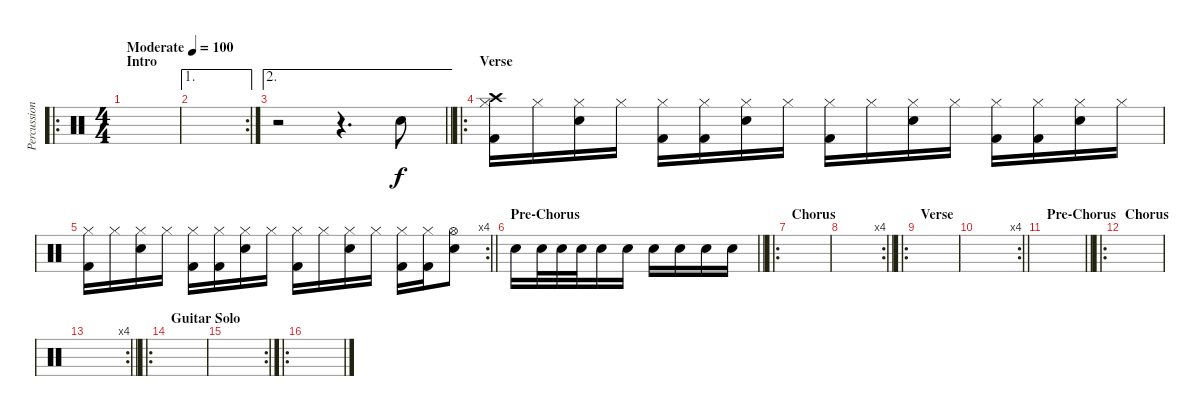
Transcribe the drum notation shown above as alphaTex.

\track ("Percussion" "Percussion") {instrument percussion}
\staff {score}
\articulation defaults
\ro
\ts (4 4)
\section ("" "Intro")
\tempo (100 "Moderate")
\clef neutral
\ks c
|
\ae 1
\rc 2
|
\ae 2
\barLineRight lightlight
r.2 r.4{d} "Electric Snare (hit)".8 |
\ro
\section ("" "Verse")
("Crash high (hit)" "Kick (hit) 2" "Hi-Hat (closed)").16 "Hi-Hat (closed)".16 ("Electric Snare (hit)" "Hi-Hat (closed)").16 "Hi-Hat (closed)".16 ("Kick (hit) 2" "Hi-Hat (closed)").16 ("Kick (hit) 2" "Hi-Hat (closed)").16 ("Electric Snare (hit)" "Hi-Hat (closed)").16 "Hi-Hat (closed)".16 ("Kick (hit) 2" "Hi-Hat (closed)").16 "Hi-Hat (closed)".16 ("Electric Snare (hit)" "Hi-Hat (closed)").16 "Hi-Hat (closed)".16 ("Kick (hit) 2" "Hi-Hat (closed)").16 ("Kick (hit) 2" "Hi-Hat (closed)").16 ("Electric Snare (hit)" "Hi-Hat (closed)").16 "Hi-Hat (closed)".16 |
\rc 4
\barLineRight lightlight
("Kick (hit) 2" "Hi-Hat (closed)").16 "Hi-Hat (closed)".16 ("Electric Snare (hit)" "Hi-Hat (closed)").16 "Hi-Hat (closed)".16 ("Kick (hit) 2" "Hi-Hat (closed)").16 ("Kick (hit) 2" "Hi-Hat (closed)").16 ("Electric Snare (hit)" "Hi-Hat (closed)").16 "Hi-Hat (closed)".16 ("Kick (hit) 2" "Hi-Hat (closed)").16 "Hi-Hat (closed)".16 ("Electric Snare (hit)" "Hi-Hat (closed)").16 "Hi-Hat (closed)".16 ("Kick (hit) 2" "Hi-Hat (closed)").16 ("Kick (hit) 2" "Hi-Hat (closed)").16 ("Electric Snare (hit)" "Hi-Hat (open)").8 |
\section ("" "Pre-Chorus")
\barLineRight lightlight "Electric Snare (hit)".16 "Electric Snare (hit)".32 "Electric Snare (hit)".32 "Electric Snare (hit)".32 "Electric Snare (hit)".16 "Electric Snare (hit)".16 "Electric Snare (hit)".16 "Electric Snare (hit)".16 "Electric Snare (hit)".16 "Electric Snare (hit)".16
|
\ro
\section ("" "Chorus")
|
\rc 4
\barLineRight lightlight
|
\ro
\section ("" "Verse")
|
\rc 4
\barLineRight lightlight
|
\section ("" "Pre-Chorus")
\barLineRight lightlight
|
\ro
\section ("" "Chorus")
|
\rc 4
\barLineRight lightlight
|
\ro
\section ("" "Guitar Solo")
|
\rc 2
|
\ro
